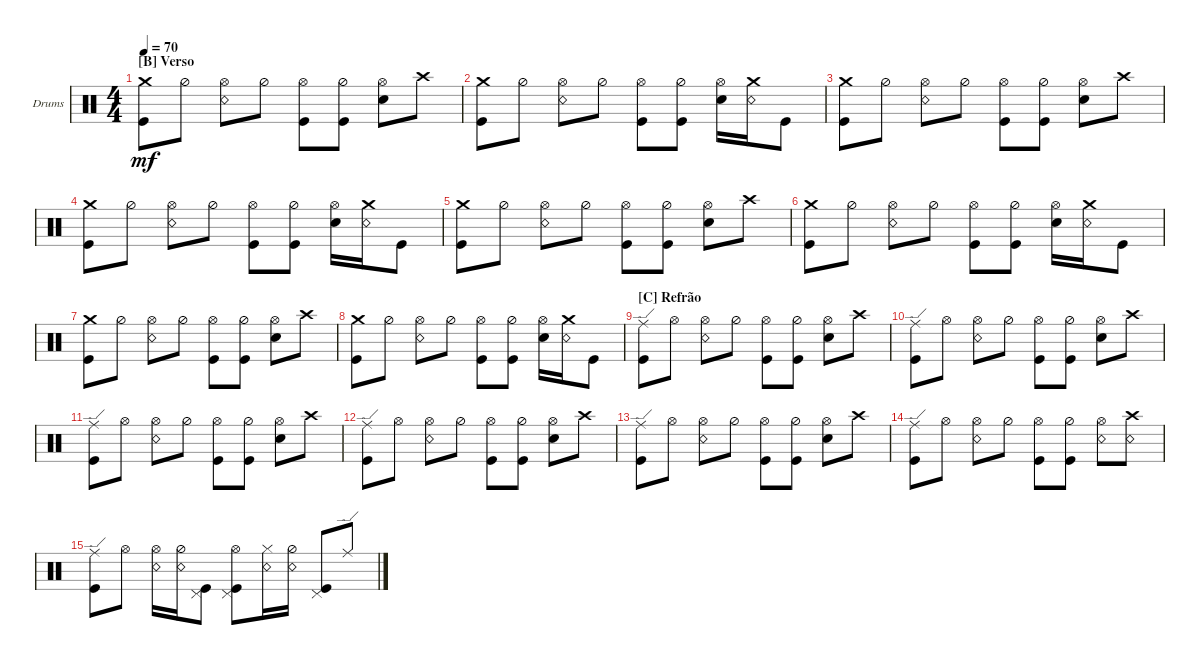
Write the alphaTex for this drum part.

\defaultSystemsLayout 4
\bracketExtendMode groupsimilarinstruments
\firstSystemTrackNameOrientation horizontal
\otherSystemsTrackNameOrientation horizontal
\track ("Drum" "Drums") {multiBarRest instrument percussion}
\staff {score}
\articulation defaults
\ts (4 4)
\section ("B" "Verso")
\tempo 70
\clef neutral
\ks c
("Crash medium (hit)" "Kick (hit)").8{dy mf} "Hi-Hat (half)".8 ("Hi-Hat (open)" "Snare (rim shot)").8 "Hi-Hat (half)".8 ("Hi-Hat (open)" "Kick (hit)").8 ("Hi-Hat (half)" "Kick (hit)").8 ("Hi-Hat (open)" "Snare (hit) 2").8 "Crash high (hit)".8 |
("Crash medium (hit)" "Kick (hit)").8 "Hi-Hat (half)".8 ("Hi-Hat (open)" "Snare (rim shot)").8 "Hi-Hat (half)".8 ("Hi-Hat (open)" "Kick (hit)").8 ("Hi-Hat (half)" "Kick (hit)").8 ("Hi-Hat (open)" "Snare (hit) 2").16 ("Crash medium (hit)" "Snare (rim shot)").16 "Kick (hit)".8 |
("Crash medium (hit)" "Kick (hit)").8 "Hi-Hat (half)".8 ("Hi-Hat (open)" "Snare (rim shot)").8 "Hi-Hat (half)".8 ("Hi-Hat (open)" "Kick (hit)").8 ("Hi-Hat (half)" "Kick (hit)").8 ("Hi-Hat (open)" "Snare (hit) 2").8 "Crash high (hit)".8 |
("Crash medium (hit)" "Kick (hit)").8 "Hi-Hat (half)".8 ("Hi-Hat (open)" "Snare (rim shot)").8 "Hi-Hat (half)".8 ("Hi-Hat (open)" "Kick (hit)").8 ("Hi-Hat (half)" "Kick (hit)").8 ("Hi-Hat (open)" "Snare (hit) 2").16 ("Crash medium (hit)" "Snare (rim shot)").16 "Kick (hit)".8 |
("Crash medium (hit)" "Kick (hit)").8 "Hi-Hat (half)".8 ("Hi-Hat (open)" "Snare (rim shot)").8 "Hi-Hat (half)".8 ("Hi-Hat (open)" "Kick (hit)").8 ("Hi-Hat (half)" "Kick (hit)").8 ("Hi-Hat (open)" "Snare (hit) 2").8 "Crash high (hit)".8 |
("Crash medium (hit)" "Kick (hit)").8 "Hi-Hat (half)".8 ("Hi-Hat (open)" "Snare (rim shot)").8 "Hi-Hat (half)".8 ("Hi-Hat (open)" "Kick (hit)").8 ("Hi-Hat (half)" "Kick (hit)").8 ("Hi-Hat (open)" "Snare (hit) 2").16 ("Crash medium (hit)" "Snare (rim shot)").16 "Kick (hit)".8 |
("Crash medium (hit)" "Kick (hit)").8 "Hi-Hat (half)".8 ("Hi-Hat (open)" "Snare (rim shot)").8 "Hi-Hat (half)".8 ("Hi-Hat (open)" "Kick (hit)").8 ("Hi-Hat (half)" "Kick (hit)").8 ("Hi-Hat (open)" "Snare (hit) 2").8 "Crash high (hit)".8 |
("Crash medium (hit)" "Kick (hit)").8 "Hi-Hat (half)".8 ("Hi-Hat (open)" "Snare (rim shot)").8 "Hi-Hat (half)".8 ("Hi-Hat (open)" "Kick (hit)").8 ("Hi-Hat (half)" "Kick (hit)").8 ("Hi-Hat (open)" "Snare (hit) 2").16 ("Crash medium (hit)" "Snare (rim shot)").16 "Kick (hit)".8 |
\section ("C" "Refrão")
("Kick (hit)" "Ride (edge)").8 "Hi-Hat (open)".8 ("Hi-Hat (open)" "Snare (rim shot)").8 "Hi-Hat (half)".8 ("Hi-Hat (open)" "Kick (hit)").8 ("Hi-Hat (half)" "Kick (hit)").8 ("Hi-Hat (open)" "Snare (hit) 2").8 "Crash high (hit)".8 |
("Kick (hit)" "Ride (edge)").8 "Hi-Hat (open)".8 ("Hi-Hat (open)" "Snare (rim shot)").8 "Hi-Hat (half)".8 ("Hi-Hat (open)" "Kick (hit)").8 ("Hi-Hat (half)" "Kick (hit)").8 ("Hi-Hat (open)" "Snare (hit) 2").8 "Crash high (hit)".8 |
("Kick (hit)" "Ride (edge)").8 "Hi-Hat (open)".8 ("Hi-Hat (open)" "Snare (rim shot)").8 "Hi-Hat (half)".8 ("Hi-Hat (open)" "Kick (hit)").8 ("Hi-Hat (half)" "Kick (hit)").8 ("Hi-Hat (open)" "Snare (hit) 2").8 "Crash high (hit)".8 |
("Kick (hit)" "Ride (edge)").8 "Hi-Hat (open)".8 ("Hi-Hat (open)" "Snare (rim shot)").8 "Hi-Hat (half)".8 ("Hi-Hat (open)" "Kick (hit)").8 ("Hi-Hat (half)" "Kick (hit)").8 ("Hi-Hat (open)" "Snare (hit) 2").8 "Crash high (hit)".8 |
("Kick (hit)" "Ride (edge)").8 "Hi-Hat (open)".8 ("Hi-Hat (open)" "Snare (rim shot)").8 "Hi-Hat (half)".8 ("Hi-Hat (open)" "Kick (hit)").8 ("Hi-Hat (half)" "Kick (hit)").8 ("Hi-Hat (open)" "Snare (hit) 2").8 "Crash high (hit)".8 |
("Kick (hit)" "Ride (edge)").8 "Hi-Hat (open)".8 ("Hi-Hat (open)" "Snare (rim shot)").8 "Hi-Hat (half)".8 ("Hi-Hat (open)" "Kick (hit)").8 ("Hi-Hat (half)" "Kick (hit)").8 ("Hi-Hat (open)" "Snare (rim shot)").8 ("Crash high (hit)" "Snare (rim shot)").8 |
("Kick (hit)" "Ride (edge)").8 "Hi-Hat (open)".8 ("Snare (rim shot)" "Hi-Hat (open)").16 ("Snare (rim shot)" "Hi-Hat (half)").16 ("Kick (hit)" "Pedal Hi-Hat (hit)").8 ("Kick (hit)" "Pedal Hi-Hat (hit)" "Hi-Hat (open)").8 ("Snare (rim shot)" "Hi-Hat (closed)").16 ("Snare (rim shot)" "Hi-Hat (half)").16 ("Kick (hit)" "Pedal Hi-Hat (hit)").8 "Ride (edge)".8
